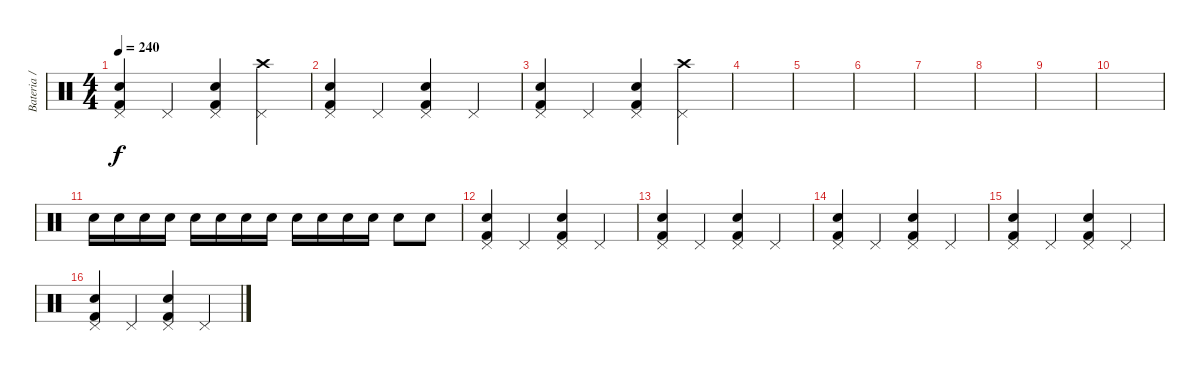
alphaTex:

\track ("Bateria / Percusión" "Bateria / ") {instrument percussion}
\staff {score}
\articulation defaults
\ts (4 4)
\tempo 240
\clef neutral
\ks c
("Kick (hit) 2" "Pedal Hi-Hat (hit)" "Snare (hit) 2").4{dy f} "Pedal Hi-Hat (hit)".4 ("Kick (hit) 2" "Pedal Hi-Hat (hit)" "Snare (hit) 2").4 ("Crash high (hit)" "Pedal Hi-Hat (hit)").4 |
("Kick (hit) 2" "Pedal Hi-Hat (hit)" "Snare (hit) 2").4 "Pedal Hi-Hat (hit)".4 ("Kick (hit) 2" "Pedal Hi-Hat (hit)" "Snare (hit) 2").4 "Pedal Hi-Hat (hit)".4 |
("Kick (hit) 2" "Pedal Hi-Hat (hit)" "Snare (hit) 2").4 "Pedal Hi-Hat (hit)".4 ("Kick (hit) 2" "Pedal Hi-Hat (hit)" "Snare (hit) 2").4 ("Crash high (hit)" "Pedal Hi-Hat (hit)").4 |
|
|
|
|
|
|
|
"Snare (hit) 2".16 "Snare (hit) 2".16 "Snare (hit) 2".16 "Snare (hit) 2".16 "Snare (hit) 2".16 "Snare (hit) 2".16 "Snare (hit) 2".16 "Snare (hit) 2".16 "Snare (hit) 2".16 "Snare (hit) 2".16 "Snare (hit) 2".16 "Snare (hit) 2".16 "Snare (hit) 2".8 "Snare (hit) 2".8 |
("Kick (hit) 2" "Pedal Hi-Hat (hit)" "Snare (hit) 2").4 "Pedal Hi-Hat (hit)".4 ("Kick (hit) 2" "Pedal Hi-Hat (hit)" "Snare (hit) 2").4 "Pedal Hi-Hat (hit)".4 |
("Kick (hit) 2" "Pedal Hi-Hat (hit)" "Snare (hit) 2").4 "Pedal Hi-Hat (hit)".4 ("Kick (hit) 2" "Pedal Hi-Hat (hit)" "Snare (hit) 2").4 "Pedal Hi-Hat (hit)".4 |
("Kick (hit) 2" "Pedal Hi-Hat (hit)" "Snare (hit) 2").4 "Pedal Hi-Hat (hit)".4 ("Kick (hit) 2" "Pedal Hi-Hat (hit)" "Snare (hit) 2").4 "Pedal Hi-Hat (hit)".4 |
("Kick (hit) 2" "Pedal Hi-Hat (hit)" "Snare (hit) 2").4 "Pedal Hi-Hat (hit)".4 ("Kick (hit) 2" "Pedal Hi-Hat (hit)" "Snare (hit) 2").4 "Pedal Hi-Hat (hit)".4 |
("Kick (hit) 2" "Pedal Hi-Hat (hit)" "Snare (hit) 2").4 "Pedal Hi-Hat (hit)".4 ("Kick (hit) 2" "Pedal Hi-Hat (hit)" "Snare (hit) 2").4 "Pedal Hi-Hat (hit)".4
